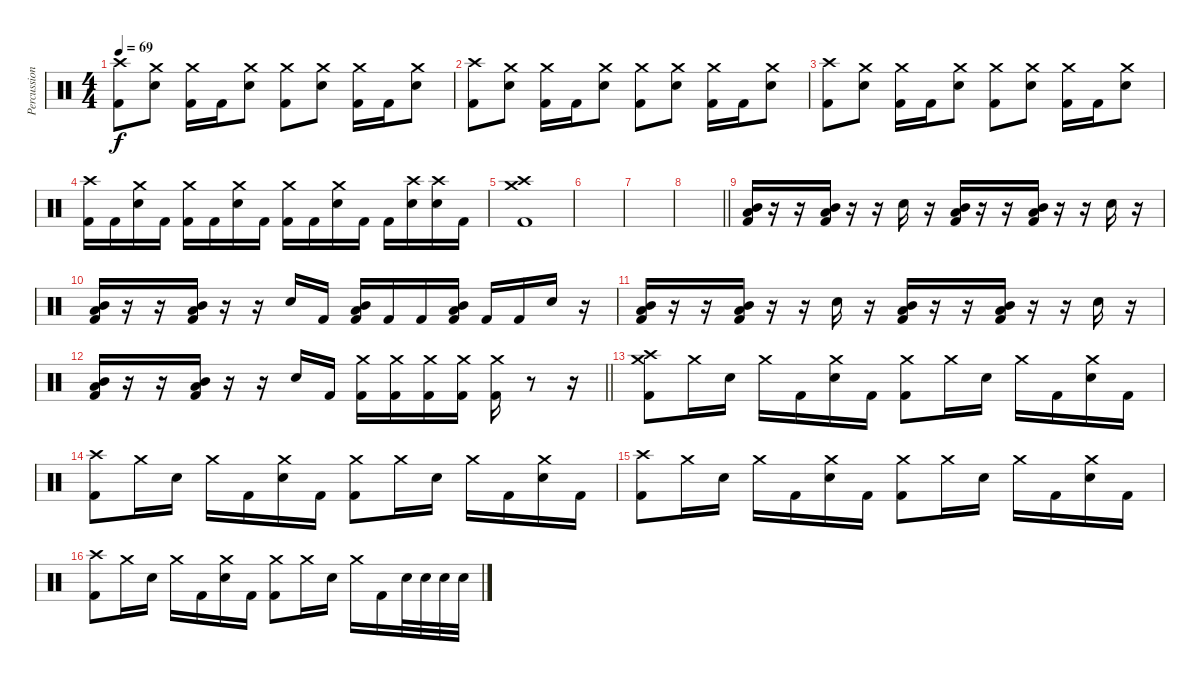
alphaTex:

\track ("Percussion" "Percussion") {instrument percussion}
\staff {score}
\articulation defaults
\ts (4 4)
\tempo 69
\clef neutral
\ks c
("Crash high (hit)" "Kick (hit) 2").8{dy f} ("Crash medium (hit)" "Electric Snare (hit)").8 ("Crash medium (hit)" "Kick (hit) 2").16 "Kick (hit) 2".16 ("Crash medium (hit)" "Electric Snare (hit)").8 ("Crash medium (hit)" "Kick (hit) 2").8 ("Crash medium (hit)" "Electric Snare (hit)").8 ("Crash medium (hit)" "Kick (hit) 2").16 "Kick (hit) 2".16 ("Crash medium (hit)" "Electric Snare (hit)").8 |
("Crash high (hit)" "Kick (hit) 2").8 ("Crash medium (hit)" "Electric Snare (hit)").8 ("Crash medium (hit)" "Kick (hit) 2").16 "Kick (hit) 2".16 ("Crash medium (hit)" "Electric Snare (hit)").8 ("Crash medium (hit)" "Kick (hit) 2").8 ("Crash medium (hit)" "Electric Snare (hit)").8 ("Crash medium (hit)" "Kick (hit) 2").16 "Kick (hit) 2".16 ("Crash medium (hit)" "Electric Snare (hit)").8 |
("Crash high (hit)" "Kick (hit) 2").8 ("Crash medium (hit)" "Electric Snare (hit)").8 ("Crash medium (hit)" "Kick (hit) 2").16 "Kick (hit) 2".16 ("Crash medium (hit)" "Electric Snare (hit)").8 ("Crash medium (hit)" "Kick (hit) 2").8 ("Crash medium (hit)" "Electric Snare (hit)").8 ("Crash medium (hit)" "Kick (hit) 2").16 "Kick (hit) 2".16 ("Crash medium (hit)" "Electric Snare (hit)").8 |
("Crash high (hit)" "Kick (hit) 2").16 "Kick (hit) 2".16 ("Crash medium (hit)" "Electric Snare (hit)").16 "Kick (hit) 2".16 ("Crash medium (hit)" "Kick (hit) 2").16 "Kick (hit) 2".16 ("Crash medium (hit)" "Electric Snare (hit)").16 "Kick (hit) 2".16 ("Crash medium (hit)" "Kick (hit) 2").16 "Kick (hit) 2".16 ("Crash medium (hit)" "Electric Snare (hit)").16 "Kick (hit) 2".16 "Kick (hit) 2".16 ("Crash high (hit)" "Electric Snare (hit)").16 ("Crash high (hit)" "Electric Snare (hit)").16 "Kick (hit) 2".16 |
("Crash high (hit)" "Crash medium (hit)" "Kick (hit) 2").1 |
|
|
\barLineRight lightlight
|
("Low Floor Tom (hit)" "Mid Tom (hit)" "Kick (hit) 2").16 r.16 r.16 ("Low Floor Tom (hit)" "Mid Tom (hit)" "Kick (hit) 2").16 r.16 r.16 "Electric Snare (hit)".16 r.16 ("Low Floor Tom (hit)" "Mid Tom (hit)" "Kick (hit) 2").16 r.16 r.16 ("Low Floor Tom (hit)" "Mid Tom (hit)" "Kick (hit) 2").16 r.16 r.16 "Electric Snare (hit)".16 r.16 |
("Low Floor Tom (hit)" "Mid Tom (hit)" "Kick (hit) 2").16 r.16 r.16 ("Low Floor Tom (hit)" "Mid Tom (hit)" "Kick (hit) 2").16 r.16 r.16 "Electric Snare (hit)".16 "Kick (hit) 2".16 ("Low Floor Tom (hit)" "Mid Tom (hit)" "Kick (hit) 2").16 "Kick (hit) 2".16 "Kick (hit) 2".16 ("Low Floor Tom (hit)" "Mid Tom (hit)" "Kick (hit) 2").16 "Kick (hit) 2".16 "Kick (hit) 2".16 "Electric Snare (hit)".16 r.16 |
("Low Floor Tom (hit)" "Mid Tom (hit)" "Kick (hit) 2").16 r.16 r.16 ("Low Floor Tom (hit)" "Mid Tom (hit)" "Kick (hit) 2").16 r.16 r.16 "Electric Snare (hit)".16 r.16 ("Low Floor Tom (hit)" "Mid Tom (hit)" "Kick (hit) 2").16 r.16 r.16 ("Low Floor Tom (hit)" "Mid Tom (hit)" "Kick (hit) 2").16 r.16 r.16 "Electric Snare (hit)".16 r.16 |
\barLineRight lightlight
("Low Floor Tom (hit)" "Mid Tom (hit)" "Kick (hit) 2").16 r.16 r.16 ("Low Floor Tom (hit)" "Mid Tom (hit)" "Kick (hit) 2").16 r.16 r.16 "Electric Snare (hit)".16 "Kick (hit) 2".16 ("Crash medium (hit)" "Kick (hit) 2").16 ("Crash medium (hit)" "Kick (hit) 2").16 ("Crash medium (hit)" "Kick (hit) 2").16 ("Crash medium (hit)" "Kick (hit) 2").16 ("Crash medium (hit)" "Kick (hit) 2").16 r.8 r.16 |
("Crash high (hit)" "Crash medium (hit)" "Kick (hit) 2").8 "Crash medium (hit)".16 "Electric Snare (hit)".16 "Crash medium (hit)".16 "Kick (hit) 2".16 ("Crash medium (hit)" "Electric Snare (hit)").16 "Kick (hit) 2".16 ("Crash medium (hit)" "Kick (hit) 2").8 "Crash medium (hit)".16 "Electric Snare (hit)".16 "Crash medium (hit)".16 "Kick (hit) 2".16 ("Crash medium (hit)" "Electric Snare (hit)").16 "Kick (hit) 2".16 |
("Crash high (hit)" "Kick (hit) 2").8 "Crash medium (hit)".16 "Electric Snare (hit)".16 "Crash medium (hit)".16 "Kick (hit) 2".16 ("Crash medium (hit)" "Electric Snare (hit)").16 "Kick (hit) 2".16 ("Crash medium (hit)" "Kick (hit) 2").8 "Crash medium (hit)".16 "Electric Snare (hit)".16 "Crash medium (hit)".16 "Kick (hit) 2".16 ("Crash medium (hit)" "Electric Snare (hit)").16 "Kick (hit) 2".16 |
("Crash high (hit)" "Kick (hit) 2").8 "Crash medium (hit)".16 "Electric Snare (hit)".16 "Crash medium (hit)".16 "Kick (hit) 2".16 ("Crash medium (hit)" "Electric Snare (hit)").16 "Kick (hit) 2".16 ("Crash medium (hit)" "Kick (hit) 2").8 "Crash medium (hit)".16 "Electric Snare (hit)".16 "Crash medium (hit)".16 "Kick (hit) 2".16 ("Crash medium (hit)" "Electric Snare (hit)").16 "Kick (hit) 2".16 |
("Crash high (hit)" "Kick (hit) 2").8 "Crash medium (hit)".16 "Electric Snare (hit)".16 "Crash medium (hit)".16 "Kick (hit) 2".16 ("Crash medium (hit)" "Electric Snare (hit)").16 "Kick (hit) 2".16 ("Crash medium (hit)" "Kick (hit) 2").8 "Crash medium (hit)".16 "Electric Snare (hit)".16 "Crash medium (hit)".16 "Kick (hit) 2".16 "Electric Snare (hit)".32 "Electric Snare (hit)".32 "Electric Snare (hit)".32 "Electric Snare (hit)".32
